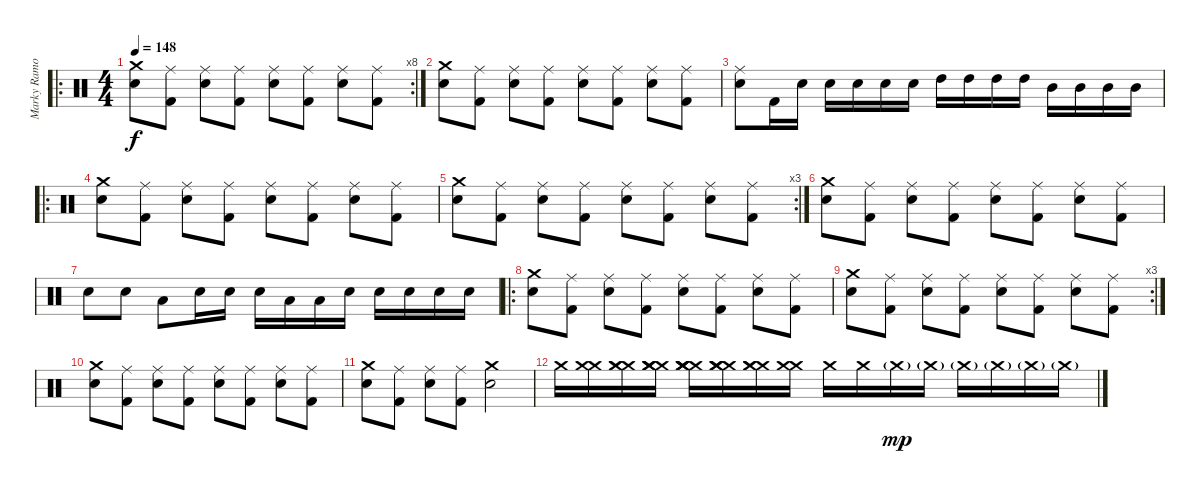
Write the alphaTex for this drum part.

\track ("Marky Ramone" "Marky Ramo") {instrument percussion}
\staff {score}
\articulation defaults
\ro
\rc 8
\ts (4 4)
\tempo 148
\clef neutral
\ks c
("Crash medium (hit)" "Snare (hit) 2").8{dy f} ("Ride (middle)" "Kick (hit) 2").8 ("Ride (middle)" "Snare (hit) 2").8 ("Ride (middle)" "Kick (hit) 2").8 ("Ride (middle)" "Snare (hit) 2").8 ("Ride (middle)" "Kick (hit) 2").8 ("Ride (middle)" "Snare (hit) 2").8 ("Ride (middle)" "Kick (hit) 2").8 |
("Crash medium (hit)" "Snare (hit) 2").8 ("Ride (middle)" "Kick (hit) 2").8 ("Ride (middle)" "Snare (hit) 2").8 ("Ride (middle)" "Kick (hit) 2").8 ("Ride (middle)" "Snare (hit) 2").8 ("Ride (middle)" "Kick (hit) 2").8 ("Ride (middle)" "Snare (hit) 2").8 ("Ride (middle)" "Kick (hit) 2").8 |
("Ride (middle)" "Snare (hit) 2").8 "Kick (hit) 2".16 "Snare (hit) 2".16 "Snare (hit) 2".16 "Snare (hit) 2".16 "Snare (hit) 2".16 "Snare (hit) 2".16 "High Tom (hit)".16 "High Tom (hit)".16 "High Tom (hit)".16 "High Tom (hit)".16 "Mid Tom (hit)".16 "Mid Tom (hit)".16 "Mid Tom (hit)".16 "Mid Tom (hit)".16 |
\ro
("Crash medium (hit)" "Snare (hit) 2").8 ("Ride (middle)" "Kick (hit) 2").8 ("Ride (middle)" "Snare (hit) 2").8 ("Ride (middle)" "Kick (hit) 2").8 ("Ride (middle)" "Snare (hit) 2").8 ("Ride (middle)" "Kick (hit) 2").8 ("Ride (middle)" "Snare (hit) 2").8 ("Ride (middle)" "Kick (hit) 2").8 |
\rc 3
("Crash medium (hit)" "Snare (hit) 2").8 ("Ride (middle)" "Kick (hit) 2").8 ("Ride (middle)" "Snare (hit) 2").8 ("Ride (middle)" "Kick (hit) 2").8 ("Ride (middle)" "Snare (hit) 2").8 ("Ride (middle)" "Kick (hit) 2").8 ("Ride (middle)" "Snare (hit) 2").8 ("Ride (middle)" "Kick (hit) 2").8 |
("Crash medium (hit)" "Snare (hit) 2").8 ("Ride (middle)" "Kick (hit) 2").8 ("Ride (middle)" "Snare (hit) 2").8 ("Ride (middle)" "Kick (hit) 2").8 ("Ride (middle)" "Snare (hit) 2").8 ("Ride (middle)" "Kick (hit) 2").8 ("Ride (middle)" "Snare (hit) 2").8 ("Ride (middle)" "Kick (hit) 2").8 |
"Snare (hit) 2".8 "Snare (hit) 2".8 "Low Tom (hit)".8 "Snare (hit) 2".16 "Snare (hit) 2".16 "Snare (hit) 2".16 "Low Tom (hit)".16 "Low Tom (hit)".16 "Snare (hit) 2".16 "Snare (hit) 2".16 "Snare (hit) 2".16 "Snare (hit) 2".16 "Snare (hit) 2".16 |
\ro
("Crash medium (hit)" "Snare (hit) 2").8 ("Ride (middle)" "Kick (hit) 2").8 ("Ride (middle)" "Snare (hit) 2").8 ("Ride (middle)" "Kick (hit) 2").8 ("Ride (middle)" "Snare (hit) 2").8 ("Ride (middle)" "Kick (hit) 2").8 ("Ride (middle)" "Snare (hit) 2").8 ("Ride (middle)" "Kick (hit) 2").8 |
\rc 3
("Crash medium (hit)" "Snare (hit) 2").8 ("Ride (middle)" "Kick (hit) 2").8 ("Ride (middle)" "Snare (hit) 2").8 ("Ride (middle)" "Kick (hit) 2").8 ("Ride (middle)" "Snare (hit) 2").8 ("Ride (middle)" "Kick (hit) 2").8 ("Ride (middle)" "Snare (hit) 2").8 ("Ride (middle)" "Kick (hit) 2").8 |
("Crash medium (hit)" "Snare (hit) 2").8 ("Ride (middle)" "Kick (hit) 2").8 ("Ride (middle)" "Snare (hit) 2").8 ("Ride (middle)" "Kick (hit) 2").8 ("Ride (middle)" "Snare (hit) 2").8 ("Ride (middle)" "Kick (hit) 2").8 ("Ride (middle)" "Snare (hit) 2").8 ("Ride (middle)" "Kick (hit) 2").8 |
("Crash medium (hit)" "Snare (hit) 2").8 ("Ride (middle)" "Kick (hit) 2").8 ("Ride (middle)" "Snare (hit) 2").8 ("Ride (middle)" "Kick (hit) 2").8 ("Crash medium (hit)" "Snare (hit) 2").2 |
"Crash medium (hit)".16 ("Crash medium (hit)" "Crash medium (hit)").16 ("Crash medium (hit)" "Crash medium (hit)" "Crash medium (hit)").16 ("Crash medium (hit)" "Crash medium (hit)" "Crash medium (hit)" "Crash medium (hit)").16 ("Crash medium (hit)" "Crash medium (hit)" "Crash medium (hit)" "Crash medium (hit)" "Crash medium (hit)").16 ("Crash medium (hit)" "Crash medium (hit)" "Crash medium (hit)" "Crash medium (hit)").16 ("Crash medium (hit)" "Crash medium (hit)" "Crash medium (hit)").16 ("Crash medium (hit)" "Crash medium (hit)").16 "Crash medium (hit)".16 "Crash medium (hit)".16 "Crash medium (hit)"{g}.16{dy mp} "Crash medium (hit)"{g}.16 "Crash medium (hit)"{g}.16 "Crash medium (hit)"{g}.16 "Crash medium (hit)"{g}.16 "Crash medium (hit)"{g}.16
